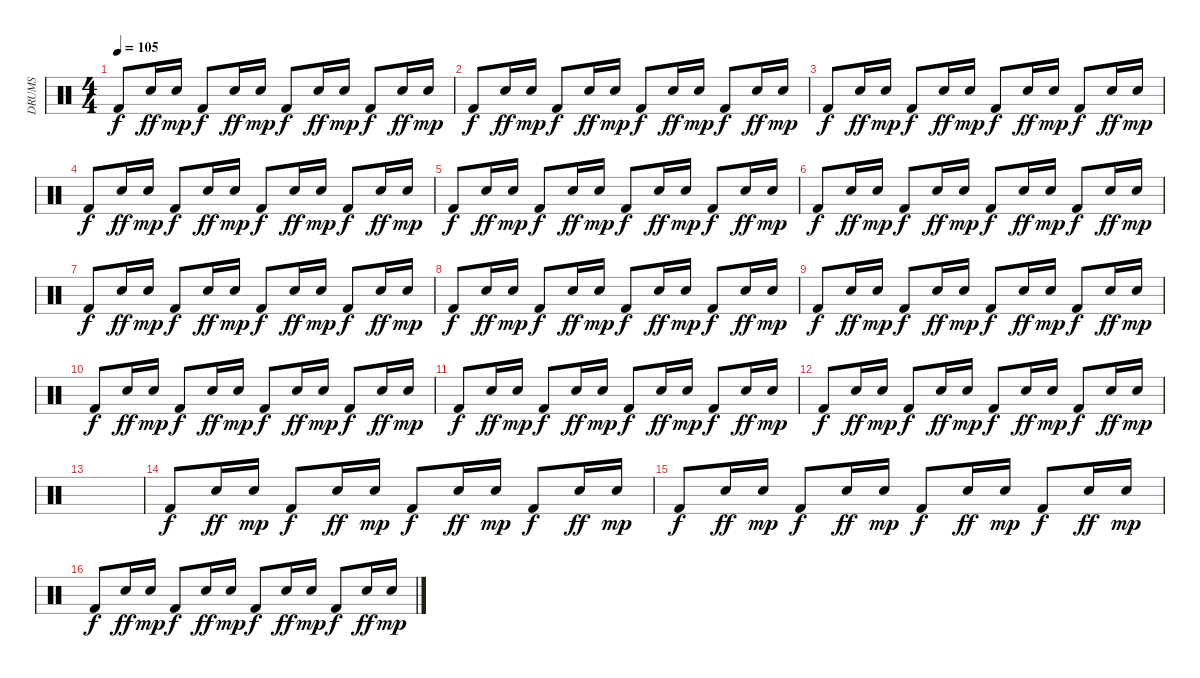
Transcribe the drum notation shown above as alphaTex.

\track ("DRUMS" "DRUMS") {instrument percussion}
\staff {score}
\articulation defaults
\ts (4 4)
\tempo 105
\clef neutral
\ks c "Kick (hit) 2".8{dy f} "Snare (hit) 2".16{dy ff} "Snare (hit) 2".16{dy mp} "Kick (hit) 2".8{dy f} "Snare (hit) 2".16{dy ff} "Snare (hit) 2".16{dy mp} "Kick (hit) 2".8{dy f} "Snare (hit) 2".16{dy ff} "Snare (hit) 2".16{dy mp} "Kick (hit) 2".8{dy f} "Snare (hit) 2".16{dy ff} "Snare (hit) 2".16{dy mp}
|
"Kick (hit) 2".8{dy f} "Snare (hit) 2".16{dy ff} "Snare (hit) 2".16{dy mp} "Kick (hit) 2".8{dy f} "Snare (hit) 2".16{dy ff} "Snare (hit) 2".16{dy mp} "Kick (hit) 2".8{dy f} "Snare (hit) 2".16{dy ff} "Snare (hit) 2".16{dy mp} "Kick (hit) 2".8{dy f} "Snare (hit) 2".16{dy ff} "Snare (hit) 2".16{dy mp} |
"Kick (hit) 2".8{dy f} "Snare (hit) 2".16{dy ff} "Snare (hit) 2".16{dy mp} "Kick (hit) 2".8{dy f} "Snare (hit) 2".16{dy ff} "Snare (hit) 2".16{dy mp} "Kick (hit) 2".8{dy f} "Snare (hit) 2".16{dy ff} "Snare (hit) 2".16{dy mp} "Kick (hit) 2".8{dy f} "Snare (hit) 2".16{dy ff} "Snare (hit) 2".16{dy mp} |
"Kick (hit) 2".8{dy f} "Snare (hit) 2".16{dy ff} "Snare (hit) 2".16{dy mp} "Kick (hit) 2".8{dy f} "Snare (hit) 2".16{dy ff} "Snare (hit) 2".16{dy mp} "Kick (hit) 2".8{dy f} "Snare (hit) 2".16{dy ff} "Snare (hit) 2".16{dy mp} "Kick (hit) 2".8{dy f} "Snare (hit) 2".16{dy ff} "Snare (hit) 2".16{dy mp} |
"Kick (hit) 2".8{dy f} "Snare (hit) 2".16{dy ff} "Snare (hit) 2".16{dy mp} "Kick (hit) 2".8{dy f} "Snare (hit) 2".16{dy ff} "Snare (hit) 2".16{dy mp} "Kick (hit) 2".8{dy f} "Snare (hit) 2".16{dy ff} "Snare (hit) 2".16{dy mp} "Kick (hit) 2".8{dy f} "Snare (hit) 2".16{dy ff} "Snare (hit) 2".16{dy mp} |
"Kick (hit) 2".8{dy f} "Snare (hit) 2".16{dy ff} "Snare (hit) 2".16{dy mp} "Kick (hit) 2".8{dy f} "Snare (hit) 2".16{dy ff} "Snare (hit) 2".16{dy mp} "Kick (hit) 2".8{dy f} "Snare (hit) 2".16{dy ff} "Snare (hit) 2".16{dy mp} "Kick (hit) 2".8{dy f} "Snare (hit) 2".16{dy ff} "Snare (hit) 2".16{dy mp} |
"Kick (hit) 2".8{dy f} "Snare (hit) 2".16{dy ff} "Snare (hit) 2".16{dy mp} "Kick (hit) 2".8{dy f} "Snare (hit) 2".16{dy ff} "Snare (hit) 2".16{dy mp} "Kick (hit) 2".8{dy f} "Snare (hit) 2".16{dy ff} "Snare (hit) 2".16{dy mp} "Kick (hit) 2".8{dy f} "Snare (hit) 2".16{dy ff} "Snare (hit) 2".16{dy mp} |
"Kick (hit) 2".8{dy f} "Snare (hit) 2".16{dy ff} "Snare (hit) 2".16{dy mp} "Kick (hit) 2".8{dy f} "Snare (hit) 2".16{dy ff} "Snare (hit) 2".16{dy mp} "Kick (hit) 2".8{dy f} "Snare (hit) 2".16{dy ff} "Snare (hit) 2".16{dy mp} "Kick (hit) 2".8{dy f} "Snare (hit) 2".16{dy ff} "Snare (hit) 2".16{dy mp} |
"Kick (hit) 2".8{dy f} "Snare (hit) 2".16{dy ff} "Snare (hit) 2".16{dy mp} "Kick (hit) 2".8{dy f} "Snare (hit) 2".16{dy ff} "Snare (hit) 2".16{dy mp} "Kick (hit) 2".8{dy f} "Snare (hit) 2".16{dy ff} "Snare (hit) 2".16{dy mp} "Kick (hit) 2".8{dy f} "Snare (hit) 2".16{dy ff} "Snare (hit) 2".16{dy mp} |
"Kick (hit) 2".8{dy f} "Snare (hit) 2".16{dy ff} "Snare (hit) 2".16{dy mp} "Kick (hit) 2".8{dy f} "Snare (hit) 2".16{dy ff} "Snare (hit) 2".16{dy mp} "Kick (hit) 2".8{dy f} "Snare (hit) 2".16{dy ff} "Snare (hit) 2".16{dy mp} "Kick (hit) 2".8{dy f} "Snare (hit) 2".16{dy ff} "Snare (hit) 2".16{dy mp} |
"Kick (hit) 2".8{dy f} "Snare (hit) 2".16{dy ff} "Snare (hit) 2".16{dy mp} "Kick (hit) 2".8{dy f} "Snare (hit) 2".16{dy ff} "Snare (hit) 2".16{dy mp} "Kick (hit) 2".8{dy f} "Snare (hit) 2".16{dy ff} "Snare (hit) 2".16{dy mp} "Kick (hit) 2".8{dy f} "Snare (hit) 2".16{dy ff} "Snare (hit) 2".16{dy mp} |
"Kick (hit) 2".8{dy f} "Snare (hit) 2".16{dy ff} "Snare (hit) 2".16{dy mp} "Kick (hit) 2".8{dy f} "Snare (hit) 2".16{dy ff} "Snare (hit) 2".16{dy mp} "Kick (hit) 2".8{dy f} "Snare (hit) 2".16{dy ff} "Snare (hit) 2".16{dy mp} "Kick (hit) 2".8{dy f} "Snare (hit) 2".16{dy ff} "Snare (hit) 2".16{dy mp} |
|
"Kick (hit) 2".8{dy f} "Snare (hit) 2".16{dy ff} "Snare (hit) 2".16{dy mp} "Kick (hit) 2".8{dy f} "Snare (hit) 2".16{dy ff} "Snare (hit) 2".16{dy mp} "Kick (hit) 2".8{dy f} "Snare (hit) 2".16{dy ff} "Snare (hit) 2".16{dy mp} "Kick (hit) 2".8{dy f} "Snare (hit) 2".16{dy ff} "Snare (hit) 2".16{dy mp} |
"Kick (hit) 2".8{dy f} "Snare (hit) 2".16{dy ff} "Snare (hit) 2".16{dy mp} "Kick (hit) 2".8{dy f} "Snare (hit) 2".16{dy ff} "Snare (hit) 2".16{dy mp} "Kick (hit) 2".8{dy f} "Snare (hit) 2".16{dy ff} "Snare (hit) 2".16{dy mp} "Kick (hit) 2".8{dy f} "Snare (hit) 2".16{dy ff} "Snare (hit) 2".16{dy mp} |
"Kick (hit) 2".8{dy f} "Snare (hit) 2".16{dy ff} "Snare (hit) 2".16{dy mp} "Kick (hit) 2".8{dy f} "Snare (hit) 2".16{dy ff} "Snare (hit) 2".16{dy mp} "Kick (hit) 2".8{dy f} "Snare (hit) 2".16{dy ff} "Snare (hit) 2".16{dy mp} "Kick (hit) 2".8{dy f} "Snare (hit) 2".16{dy ff} "Snare (hit) 2".16{dy mp}
